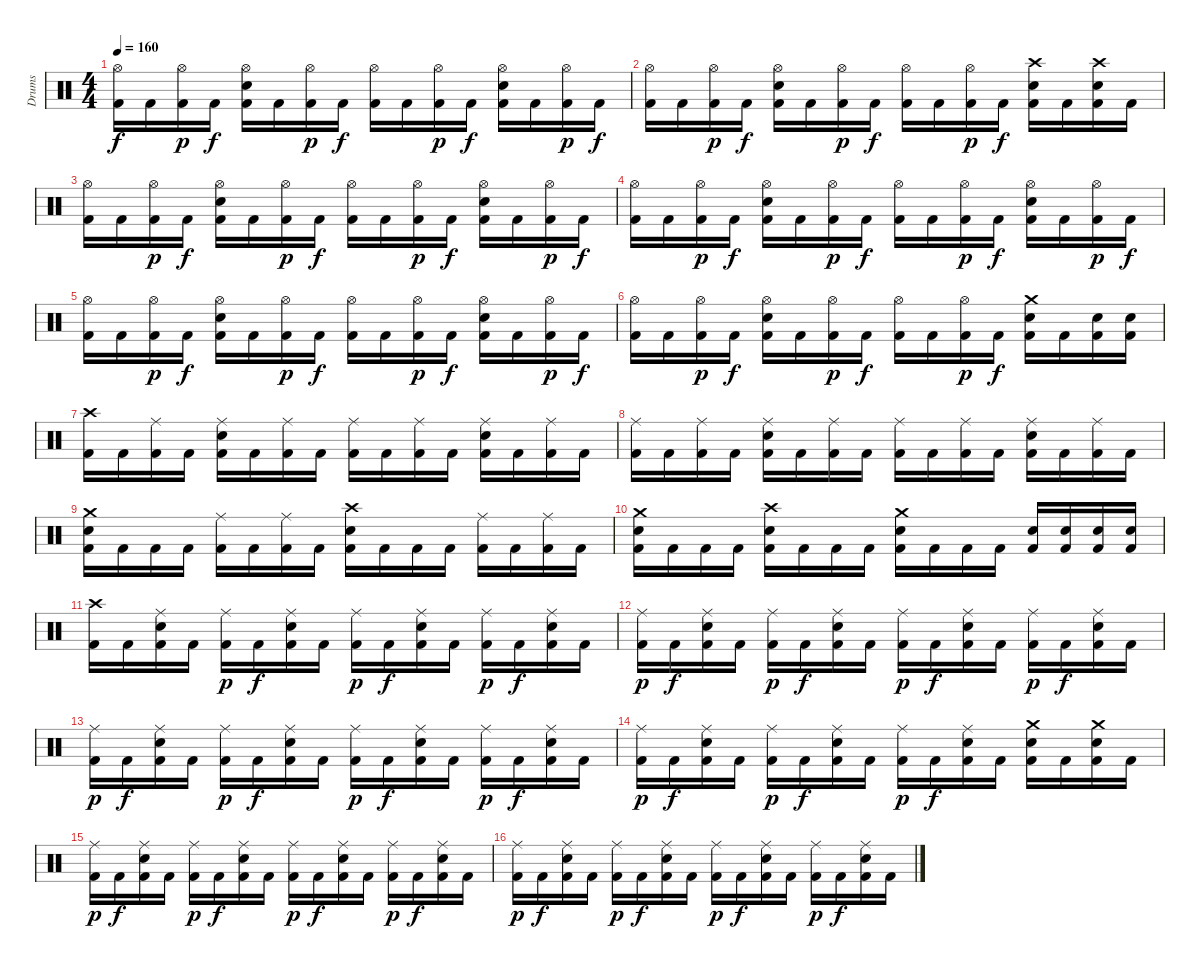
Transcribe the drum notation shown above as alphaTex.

\track ("Drums" "Drums") {instrument percussion}
\staff {score}
\articulation defaults
\ts (4 4)
\tempo 160
\clef neutral
\ks c
("Hi-Hat (open)" "Kick (hit) 2").16{dy f} "Kick (hit) 2".16 ("Hi-Hat (open)" "Kick (hit) 2").16{dy p} "Kick (hit) 2".16{dy f} ("Hi-Hat (open)" "Snare (hit) 2" "Kick (hit) 2").16 "Kick (hit) 2".16 ("Hi-Hat (open)" "Kick (hit) 2").16{dy p} "Kick (hit) 2".16{dy f} ("Hi-Hat (open)" "Kick (hit) 2").16 "Kick (hit) 2".16 ("Hi-Hat (open)" "Kick (hit) 2").16{dy p} "Kick (hit) 2".16{dy f} ("Hi-Hat (open)" "Snare (hit) 2" "Kick (hit) 2").16 "Kick (hit) 2".16 ("Hi-Hat (open)" "Kick (hit) 2").16{dy p} "Kick (hit) 2".16{dy f} |
("Hi-Hat (open)" "Kick (hit) 2").16 "Kick (hit) 2".16 ("Hi-Hat (open)" "Kick (hit) 2").16{dy p} "Kick (hit) 2".16{dy f} ("Hi-Hat (open)" "Snare (hit) 2" "Kick (hit) 2").16 "Kick (hit) 2".16 ("Hi-Hat (open)" "Kick (hit) 2").16{dy p} "Kick (hit) 2".16{dy f} ("Hi-Hat (open)" "Kick (hit) 2").16 "Kick (hit) 2".16 ("Hi-Hat (open)" "Kick (hit) 2").16{dy p} "Kick (hit) 2".16{dy f} ("Crash high (hit)" "Snare (hit) 2" "Kick (hit) 2").16 "Kick (hit) 2".16 ("Crash high (hit)" "Snare (hit) 2" "Kick (hit) 2").16 "Kick (hit) 2".16 |
("Hi-Hat (open)" "Kick (hit) 2").16 "Kick (hit) 2".16 ("Hi-Hat (open)" "Kick (hit) 2").16{dy p} "Kick (hit) 2".16{dy f} ("Hi-Hat (open)" "Snare (hit) 2" "Kick (hit) 2").16 "Kick (hit) 2".16 ("Hi-Hat (open)" "Kick (hit) 2").16{dy p} "Kick (hit) 2".16{dy f} ("Hi-Hat (open)" "Kick (hit) 2").16 "Kick (hit) 2".16 ("Hi-Hat (open)" "Kick (hit) 2").16{dy p} "Kick (hit) 2".16{dy f} ("Hi-Hat (open)" "Snare (hit) 2" "Kick (hit) 2").16 "Kick (hit) 2".16 ("Hi-Hat (open)" "Kick (hit) 2").16{dy p} "Kick (hit) 2".16{dy f} |
("Hi-Hat (open)" "Kick (hit) 2").16 "Kick (hit) 2".16 ("Hi-Hat (open)" "Kick (hit) 2").16{dy p} "Kick (hit) 2".16{dy f} ("Hi-Hat (open)" "Snare (hit) 2" "Kick (hit) 2").16 "Kick (hit) 2".16 ("Hi-Hat (open)" "Kick (hit) 2").16{dy p} "Kick (hit) 2".16{dy f} ("Hi-Hat (open)" "Kick (hit) 2").16 "Kick (hit) 2".16 ("Hi-Hat (open)" "Kick (hit) 2").16{dy p} "Kick (hit) 2".16{dy f} ("Hi-Hat (open)" "Snare (hit) 2" "Kick (hit) 2").16 "Kick (hit) 2".16 ("Hi-Hat (open)" "Kick (hit) 2").16{dy p} "Kick (hit) 2".16{dy f} |
("Hi-Hat (open)" "Kick (hit) 2").16 "Kick (hit) 2".16 ("Hi-Hat (open)" "Kick (hit) 2").16{dy p} "Kick (hit) 2".16{dy f} ("Hi-Hat (open)" "Snare (hit) 2" "Kick (hit) 2").16 "Kick (hit) 2".16 ("Hi-Hat (open)" "Kick (hit) 2").16{dy p} "Kick (hit) 2".16{dy f} ("Hi-Hat (open)" "Kick (hit) 2").16 "Kick (hit) 2".16 ("Hi-Hat (open)" "Kick (hit) 2").16{dy p} "Kick (hit) 2".16{dy f} ("Hi-Hat (open)" "Snare (hit) 2" "Kick (hit) 2").16 "Kick (hit) 2".16 ("Hi-Hat (open)" "Kick (hit) 2").16{dy p} "Kick (hit) 2".16{dy f} |
("Hi-Hat (open)" "Kick (hit) 2").16 "Kick (hit) 2".16 ("Hi-Hat (open)" "Kick (hit) 2").16{dy p} "Kick (hit) 2".16{dy f} ("Hi-Hat (open)" "Snare (hit) 2" "Kick (hit) 2").16 "Kick (hit) 2".16 ("Hi-Hat (open)" "Kick (hit) 2").16{dy p} "Kick (hit) 2".16{dy f} ("Hi-Hat (open)" "Kick (hit) 2").16 "Kick (hit) 2".16 ("Hi-Hat (open)" "Kick (hit) 2").16{dy p} "Kick (hit) 2".16{dy f} ("Crash medium (hit)" "Snare (hit) 2" "Kick (hit) 2").16 "Kick (hit) 2".16 ("Snare (hit) 2" "Kick (hit) 2").16 ("Snare (hit) 2" "Kick (hit) 2").16 |
("Crash high (hit)" "Kick (hit) 2").16 "Kick (hit) 2".16 ("Ride (middle)" "Kick (hit) 2").16 "Kick (hit) 2".16 ("Ride (middle)" "Snare (hit) 2" "Kick (hit) 2").16 "Kick (hit) 2".16 ("Ride (middle)" "Kick (hit) 2").16 "Kick (hit) 2".16 ("Ride (middle)" "Kick (hit) 2").16 "Kick (hit) 2".16 ("Ride (middle)" "Kick (hit) 2").16 "Kick (hit) 2".16 ("Ride (middle)" "Snare (hit) 2" "Kick (hit) 2").16 "Kick (hit) 2".16 ("Ride (middle)" "Kick (hit) 2").16 "Kick (hit) 2".16 |
("Ride (middle)" "Kick (hit) 2").16 "Kick (hit) 2".16 ("Ride (middle)" "Kick (hit) 2").16 "Kick (hit) 2".16 ("Ride (middle)" "Snare (hit) 2" "Kick (hit) 2").16 "Kick (hit) 2".16 ("Ride (middle)" "Kick (hit) 2").16 "Kick (hit) 2".16 ("Ride (middle)" "Kick (hit) 2").16 "Kick (hit) 2".16 ("Ride (middle)" "Kick (hit) 2").16 "Kick (hit) 2".16 ("Ride (middle)" "Snare (hit) 2" "Kick (hit) 2").16 "Kick (hit) 2".16 ("Ride (middle)" "Kick (hit) 2").16 "Kick (hit) 2".16 |
("Crash medium (hit)" "Snare (hit) 2" "Kick (hit) 2").16 "Kick (hit) 2".16 "Kick (hit) 2".16 "Kick (hit) 2".16 ("Ride (middle)" "Kick (hit) 2").16 "Kick (hit) 2".16 ("Ride (middle)" "Kick (hit) 2").16 "Kick (hit) 2".16 ("Crash high (hit)" "Snare (hit) 2" "Kick (hit) 2").16 "Kick (hit) 2".16 "Kick (hit) 2".16 "Kick (hit) 2".16 ("Ride (middle)" "Kick (hit) 2").16 "Kick (hit) 2".16 ("Ride (middle)" "Kick (hit) 2").16 "Kick (hit) 2".16 |
("Crash medium (hit)" "Snare (hit) 2" "Kick (hit) 2").16 "Kick (hit) 2".16 "Kick (hit) 2".16 "Kick (hit) 2".16 ("Crash high (hit)" "Snare (hit) 2" "Kick (hit) 2").16 "Kick (hit) 2".16 "Kick (hit) 2".16 "Kick (hit) 2".16 ("Crash medium (hit)" "Snare (hit) 2" "Kick (hit) 2").16 "Kick (hit) 2".16 "Kick (hit) 2".16 "Kick (hit) 2".16 ("Snare (hit) 2" "Kick (hit) 2").16 ("Snare (hit) 2" "Kick (hit) 2").16 ("Snare (hit) 2" "Kick (hit) 2").16 ("Snare (hit) 2" "Kick (hit) 2").16 |
\section ("" "")
("Crash high (hit)" "Kick (hit) 2").16 "Kick (hit) 2".16 ("Ride (middle)" "Snare (hit) 2" "Kick (hit) 2").16 "Kick (hit) 2".16 ("Ride (middle)" "Kick (hit) 2").16{dy p} "Kick (hit) 2".16{dy f} ("Ride (middle)" "Snare (hit) 2" "Kick (hit) 2").16 "Kick (hit) 2".16 ("Ride (middle)" "Kick (hit) 2").16{dy p} "Kick (hit) 2".16{dy f} ("Ride (middle)" "Snare (hit) 2" "Kick (hit) 2").16 "Kick (hit) 2".16 ("Ride (middle)" "Kick (hit) 2").16{dy p} "Kick (hit) 2".16{dy f} ("Ride (middle)" "Snare (hit) 2" "Kick (hit) 2").16 "Kick (hit) 2".16 |
("Ride (middle)" "Kick (hit) 2").16{dy p} "Kick (hit) 2".16{dy f} ("Ride (middle)" "Snare (hit) 2" "Kick (hit) 2").16 "Kick (hit) 2".16 ("Ride (middle)" "Kick (hit) 2").16{dy p} "Kick (hit) 2".16{dy f} ("Ride (middle)" "Snare (hit) 2" "Kick (hit) 2").16 "Kick (hit) 2".16 ("Ride (middle)" "Kick (hit) 2").16{dy p} "Kick (hit) 2".16{dy f} ("Ride (middle)" "Snare (hit) 2" "Kick (hit) 2").16 "Kick (hit) 2".16 ("Ride (middle)" "Kick (hit) 2").16{dy p} "Kick (hit) 2".16{dy f} ("Ride (middle)" "Snare (hit) 2" "Kick (hit) 2").16 "Kick (hit) 2".16 |
("Ride (middle)" "Kick (hit) 2").16{dy p} "Kick (hit) 2".16{dy f} ("Ride (middle)" "Snare (hit) 2" "Kick (hit) 2").16 "Kick (hit) 2".16 ("Ride (middle)" "Kick (hit) 2").16{dy p} "Kick (hit) 2".16{dy f} ("Ride (middle)" "Snare (hit) 2" "Kick (hit) 2").16 "Kick (hit) 2".16 ("Ride (middle)" "Kick (hit) 2").16{dy p} "Kick (hit) 2".16{dy f} ("Ride (middle)" "Snare (hit) 2" "Kick (hit) 2").16 "Kick (hit) 2".16 ("Ride (middle)" "Kick (hit) 2").16{dy p} "Kick (hit) 2".16{dy f} ("Ride (middle)" "Snare (hit) 2" "Kick (hit) 2").16 "Kick (hit) 2".16 |
("Ride (middle)" "Kick (hit) 2").16{dy p} "Kick (hit) 2".16{dy f} ("Ride (middle)" "Snare (hit) 2" "Kick (hit) 2").16 "Kick (hit) 2".16 ("Ride (middle)" "Kick (hit) 2").16{dy p} "Kick (hit) 2".16{dy f} ("Ride (middle)" "Snare (hit) 2" "Kick (hit) 2").16 "Kick (hit) 2".16 ("Ride (middle)" "Kick (hit) 2").16{dy p} "Kick (hit) 2".16{dy f} ("Ride (middle)" "Snare (hit) 2" "Kick (hit) 2").16 "Kick (hit) 2".16 ("Crash medium (hit)" "Snare (hit) 2" "Kick (hit) 2").16 "Kick (hit) 2".16 ("Crash medium (hit)" "Snare (hit) 2" "Kick (hit) 2").16 "Kick (hit) 2".16 |
("Ride (middle)" "Kick (hit) 2").16{dy p} "Kick (hit) 2".16{dy f} ("Ride (middle)" "Snare (hit) 2" "Kick (hit) 2").16 "Kick (hit) 2".16 ("Ride (middle)" "Kick (hit) 2").16{dy p} "Kick (hit) 2".16{dy f} ("Ride (middle)" "Snare (hit) 2" "Kick (hit) 2").16 "Kick (hit) 2".16 ("Ride (middle)" "Kick (hit) 2").16{dy p} "Kick (hit) 2".16{dy f} ("Ride (middle)" "Snare (hit) 2" "Kick (hit) 2").16 "Kick (hit) 2".16 ("Ride (middle)" "Kick (hit) 2").16{dy p} "Kick (hit) 2".16{dy f} ("Ride (middle)" "Snare (hit) 2" "Kick (hit) 2").16 "Kick (hit) 2".16 |
("Ride (middle)" "Kick (hit) 2").16{dy p} "Kick (hit) 2".16{dy f} ("Ride (middle)" "Snare (hit) 2" "Kick (hit) 2").16 "Kick (hit) 2".16 ("Ride (middle)" "Kick (hit) 2").16{dy p} "Kick (hit) 2".16{dy f} ("Ride (middle)" "Snare (hit) 2" "Kick (hit) 2").16 "Kick (hit) 2".16 ("Ride (middle)" "Kick (hit) 2").16{dy p} "Kick (hit) 2".16{dy f} ("Ride (middle)" "Snare (hit) 2" "Kick (hit) 2").16 "Kick (hit) 2".16 ("Ride (middle)" "Kick (hit) 2").16{dy p} "Kick (hit) 2".16{dy f} ("Ride (middle)" "Snare (hit) 2" "Kick (hit) 2").16 "Kick (hit) 2".16
